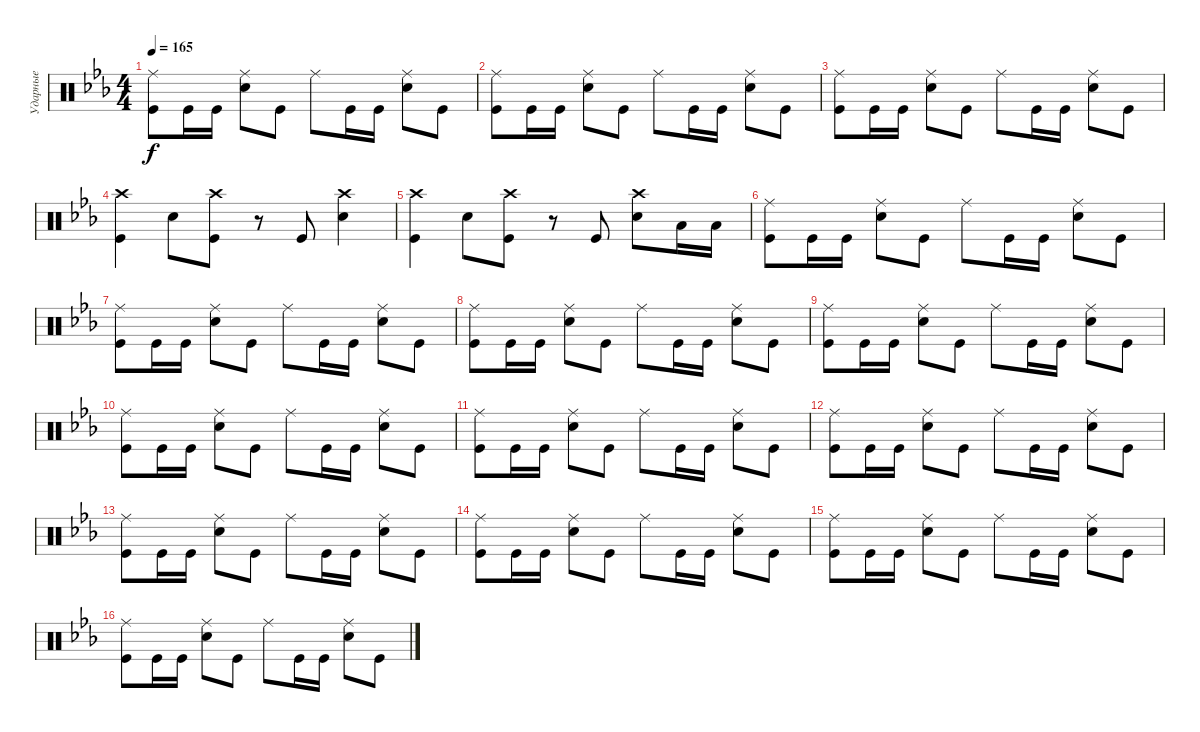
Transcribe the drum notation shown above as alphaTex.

\track ("Ударные" "Ударные") {instrument percussion}
\staff {score}
\articulation defaults
\ts (4 4)
\tempo 165
\clef neutral
\ks cminor
("Kick (hit)" "Ride (middle)").8{dy f} "Kick (hit)".16 "Kick (hit)".16 ("Snare (hit) 2" "Ride (middle)").8 "Kick (hit)".8 "Ride (middle)".8 "Kick (hit)".16 "Kick (hit)".16 ("Snare (hit) 2" "Ride (middle)").8 "Kick (hit)".8 |
("Kick (hit)" "Ride (middle)").8 "Kick (hit)".16 "Kick (hit)".16 ("Snare (hit) 2" "Ride (middle)").8 "Kick (hit)".8 "Ride (middle)".8 "Kick (hit)".16 "Kick (hit)".16 ("Snare (hit) 2" "Ride (middle)").8 "Kick (hit)".8 |
("Kick (hit)" "Ride (middle)").8 "Kick (hit)".16 "Kick (hit)".16 ("Snare (hit) 2" "Ride (middle)").8 "Kick (hit)".8 "Ride (middle)".8 "Kick (hit)".16 "Kick (hit)".16 ("Snare (hit) 2" "Ride (middle)").8 "Kick (hit)".8 |
("Kick (hit)" "Crash high (hit)").4 "Snare (hit) 2".8 ("Kick (hit)" "Crash high (hit)").8 r.8 "Kick (hit)".8 ("Snare (hit) 2" "Crash high (hit)").4 |
("Kick (hit)" "Crash high (hit)").4 "Snare (hit) 2".8 ("Kick (hit)" "Crash high (hit)").8 r.8 "Kick (hit)".8 ("Snare (hit) 2" "Crash high (hit)").8 "Low Tom (hit)".16 "Low Tom (hit)".16 |
("Kick (hit)" "Ride (middle)").8 "Kick (hit)".16 "Kick (hit)".16 ("Snare (hit) 2" "Ride (middle)").8 "Kick (hit)".8 "Ride (middle)".8 "Kick (hit)".16 "Kick (hit)".16 ("Snare (hit) 2" "Ride (middle)").8 "Kick (hit)".8 |
("Kick (hit)" "Ride (middle)").8 "Kick (hit)".16 "Kick (hit)".16 ("Snare (hit) 2" "Ride (middle)").8 "Kick (hit)".8 "Ride (middle)".8 "Kick (hit)".16 "Kick (hit)".16 ("Snare (hit) 2" "Ride (middle)").8 "Kick (hit)".8 |
("Kick (hit)" "Ride (middle)").8 "Kick (hit)".16 "Kick (hit)".16 ("Snare (hit) 2" "Ride (middle)").8 "Kick (hit)".8 "Ride (middle)".8 "Kick (hit)".16 "Kick (hit)".16 ("Snare (hit) 2" "Ride (middle)").8 "Kick (hit)".8 |
("Kick (hit)" "Ride (middle)").8 "Kick (hit)".16 "Kick (hit)".16 ("Snare (hit) 2" "Ride (middle)").8 "Kick (hit)".8 "Ride (middle)".8 "Kick (hit)".16 "Kick (hit)".16 ("Snare (hit) 2" "Ride (middle)").8 "Kick (hit)".8 |
("Kick (hit)" "Ride (middle)").8 "Kick (hit)".16 "Kick (hit)".16 ("Snare (hit) 2" "Ride (middle)").8 "Kick (hit)".8 "Ride (middle)".8 "Kick (hit)".16 "Kick (hit)".16 ("Snare (hit) 2" "Ride (middle)").8 "Kick (hit)".8 |
("Kick (hit)" "Ride (middle)").8 "Kick (hit)".16 "Kick (hit)".16 ("Snare (hit) 2" "Ride (middle)").8 "Kick (hit)".8 "Ride (middle)".8 "Kick (hit)".16 "Kick (hit)".16 ("Snare (hit) 2" "Ride (middle)").8 "Kick (hit)".8 |
("Kick (hit)" "Ride (middle)").8 "Kick (hit)".16 "Kick (hit)".16 ("Snare (hit) 2" "Ride (middle)").8 "Kick (hit)".8 "Ride (middle)".8 "Kick (hit)".16 "Kick (hit)".16 ("Snare (hit) 2" "Ride (middle)").8 "Kick (hit)".8 |
("Kick (hit)" "Ride (middle)").8 "Kick (hit)".16 "Kick (hit)".16 ("Snare (hit) 2" "Ride (middle)").8 "Kick (hit)".8 "Ride (middle)".8 "Kick (hit)".16 "Kick (hit)".16 ("Snare (hit) 2" "Ride (middle)").8 "Kick (hit)".8 |
("Kick (hit)" "Ride (middle)").8 "Kick (hit)".16 "Kick (hit)".16 ("Snare (hit) 2" "Ride (middle)").8 "Kick (hit)".8 "Ride (middle)".8 "Kick (hit)".16 "Kick (hit)".16 ("Snare (hit) 2" "Ride (middle)").8 "Kick (hit)".8 |
("Kick (hit)" "Ride (middle)").8 "Kick (hit)".16 "Kick (hit)".16 ("Snare (hit) 2" "Ride (middle)").8 "Kick (hit)".8 "Ride (middle)".8 "Kick (hit)".16 "Kick (hit)".16 ("Snare (hit) 2" "Ride (middle)").8 "Kick (hit)".8 |
("Kick (hit)" "Ride (middle)").8 "Kick (hit)".16 "Kick (hit)".16 ("Snare (hit) 2" "Ride (middle)").8 "Kick (hit)".8 "Ride (middle)".8 "Kick (hit)".16 "Kick (hit)".16 ("Snare (hit) 2" "Ride (middle)").8 "Kick (hit)".8
